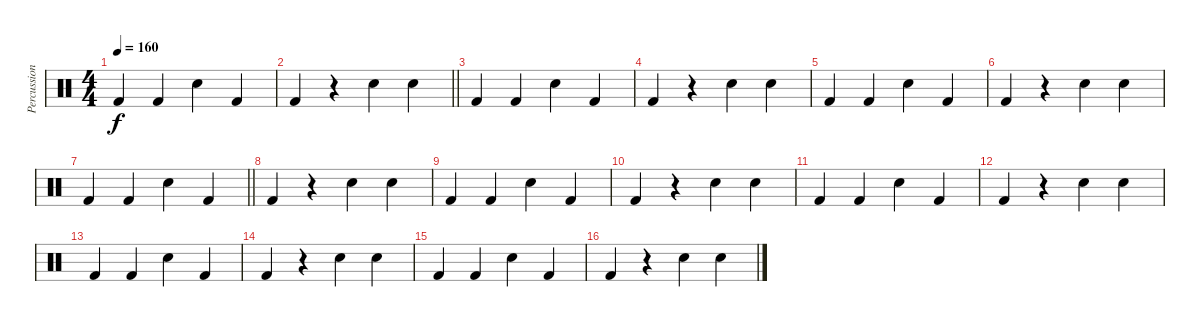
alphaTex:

\track ("Percussion" "Percussion") {instrument percussion}
\staff {score}
\articulation defaults
\ts (4 4)
\tempo 160
\clef neutral
\ks c "Kick (hit) 2".4{dy f} "Kick (hit) 2".4 "Electric Snare (hit)".4 "Kick (hit) 2".4
|
\barLineRight lightlight "Kick (hit) 2".4
r.4 "Electric Snare (hit)".4 "Electric Snare (hit)".4 |
"Kick (hit) 2".4 "Kick (hit) 2".4 "Electric Snare (hit)".4 "Kick (hit) 2".4 |
"Kick (hit) 2".4 r.4 "Electric Snare (hit)".4 "Electric Snare (hit)".4 |
"Kick (hit) 2".4 "Kick (hit) 2".4 "Electric Snare (hit)".4 "Kick (hit) 2".4 |
"Kick (hit) 2".4 r.4 "Electric Snare (hit)".4 "Electric Snare (hit)".4 |
\barLineRight lightlight "Kick (hit) 2".4 "Kick (hit) 2".4 "Electric Snare (hit)".4 "Kick (hit) 2".4
|
"Kick (hit) 2".4 r.4 "Electric Snare (hit)".4 "Electric Snare (hit)".4 |
"Kick (hit) 2".4 "Kick (hit) 2".4 "Electric Snare (hit)".4 "Kick (hit) 2".4 |
"Kick (hit) 2".4 r.4 "Electric Snare (hit)".4 "Electric Snare (hit)".4 |
"Kick (hit) 2".4 "Kick (hit) 2".4 "Electric Snare (hit)".4 "Kick (hit) 2".4 |
"Kick (hit) 2".4 r.4 "Electric Snare (hit)".4 "Electric Snare (hit)".4 |
"Kick (hit) 2".4 "Kick (hit) 2".4 "Electric Snare (hit)".4 "Kick (hit) 2".4 |
"Kick (hit) 2".4 r.4 "Electric Snare (hit)".4 "Electric Snare (hit)".4 |
"Kick (hit) 2".4 "Kick (hit) 2".4 "Electric Snare (hit)".4 "Kick (hit) 2".4 |
"Kick (hit) 2".4 r.4 "Electric Snare (hit)".4 "Electric Snare (hit)".4
